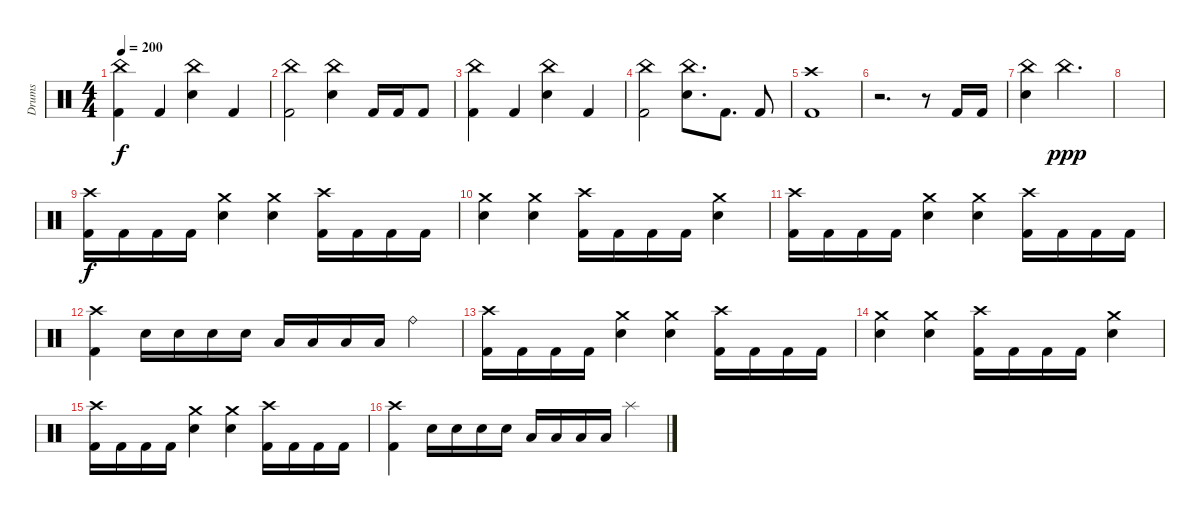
\track ("Drums" "Drums") {instrument percussion}
\staff {score}
\articulation defaults
\ts (4 4)
\tempo 200
\clef neutral
\ks c
("China (hit)" "Kick (hit) 2").4{dy f} "Kick (hit) 2".4 ("China (hit)" "Electric Snare (hit)").4 "Kick (hit) 2".4 |
("China (hit)" "Kick (hit) 2").2 ("China (hit)" "Electric Snare (hit)").4 "Kick (hit) 2".16 "Kick (hit) 2".16 "Kick (hit) 2".8 |
("China (hit)" "Kick (hit) 2").4 "Kick (hit) 2".4 ("China (hit)" "Electric Snare (hit)").4 "Kick (hit) 2".4 |
("China (hit)" "Kick (hit) 2").2 ("China (hit)" "Electric Snare (hit)").8{d} "Kick (hit) 2".8{d} "Kick (hit) 2".8 |
("Crash high (hit)" "Kick (hit) 2").1 |
r.2{d} r.8 "Kick (hit) 2".16 "Kick (hit) 2".16 |
("China (hit)" "Electric Snare (hit)").4 "China (hit)".2{d dy ppp} |
|
("Crash high (hit)" "Kick (hit) 2").16{dy f} "Kick (hit) 2".16 "Kick (hit) 2".16 "Kick (hit) 2".16 ("Crash medium (hit)" "Electric Snare (hit)").4 ("Crash medium (hit)" "Electric Snare (hit)").4 ("Crash high (hit)" "Kick (hit) 2").16 "Kick (hit) 2".16 "Kick (hit) 2".16 "Kick (hit) 2".16 |
("Crash medium (hit)" "Electric Snare (hit)").4 ("Crash medium (hit)" "Electric Snare (hit)").4 ("Crash high (hit)" "Kick (hit) 2").16 "Kick (hit) 2".16 "Kick (hit) 2".16 "Kick (hit) 2".16 ("Crash medium (hit)" "Electric Snare (hit)").4 |
("Crash high (hit)" "Kick (hit) 2").16 "Kick (hit) 2".16 "Kick (hit) 2".16 "Kick (hit) 2".16 ("Crash medium (hit)" "Electric Snare (hit)").4 ("Crash medium (hit)" "Electric Snare (hit)").4 ("Crash high (hit)" "Kick (hit) 2").16 "Kick (hit) 2".16 "Kick (hit) 2".16 "Kick (hit) 2".16 |
("Crash high (hit)" "Kick (hit) 2").4 "Electric Snare (hit)".16 "Electric Snare (hit)".16 "Electric Snare (hit)".16 "Electric Snare (hit)".16 "Low Tom (hit)".16 "Low Tom (hit)".16 "Low Tom (hit)".16 "Low Tom (hit)".16 "Ride (bell)".4 |
("Crash high (hit)" "Kick (hit) 2").16 "Kick (hit) 2".16 "Kick (hit) 2".16 "Kick (hit) 2".16 ("Crash medium (hit)" "Electric Snare (hit)").4 ("Crash medium (hit)" "Electric Snare (hit)").4 ("Crash high (hit)" "Kick (hit) 2").16 "Kick (hit) 2".16 "Kick (hit) 2".16 "Kick (hit) 2".16 |
("Crash medium (hit)" "Electric Snare (hit)").4 ("Crash medium (hit)" "Electric Snare (hit)").4 ("Crash high (hit)" "Kick (hit) 2").16 "Kick (hit) 2".16 "Kick (hit) 2".16 "Kick (hit) 2".16 ("Crash medium (hit)" "Electric Snare (hit)").4 |
("Crash high (hit)" "Kick (hit) 2").16 "Kick (hit) 2".16 "Kick (hit) 2".16 "Kick (hit) 2".16 ("Crash medium (hit)" "Electric Snare (hit)").4 ("Crash medium (hit)" "Electric Snare (hit)").4 ("Crash high (hit)" "Kick (hit) 2").16 "Kick (hit) 2".16 "Kick (hit) 2".16 "Kick (hit) 2".16 |
("Crash high (hit)" "Kick (hit) 2").4 "Electric Snare (hit)".16 "Electric Snare (hit)".16 "Electric Snare (hit)".16 "Electric Snare (hit)".16 "Low Tom (hit)".16 "Low Tom (hit)".16 "Low Tom (hit)".16 "Low Tom (hit)".16 "Splash (hit)".4
